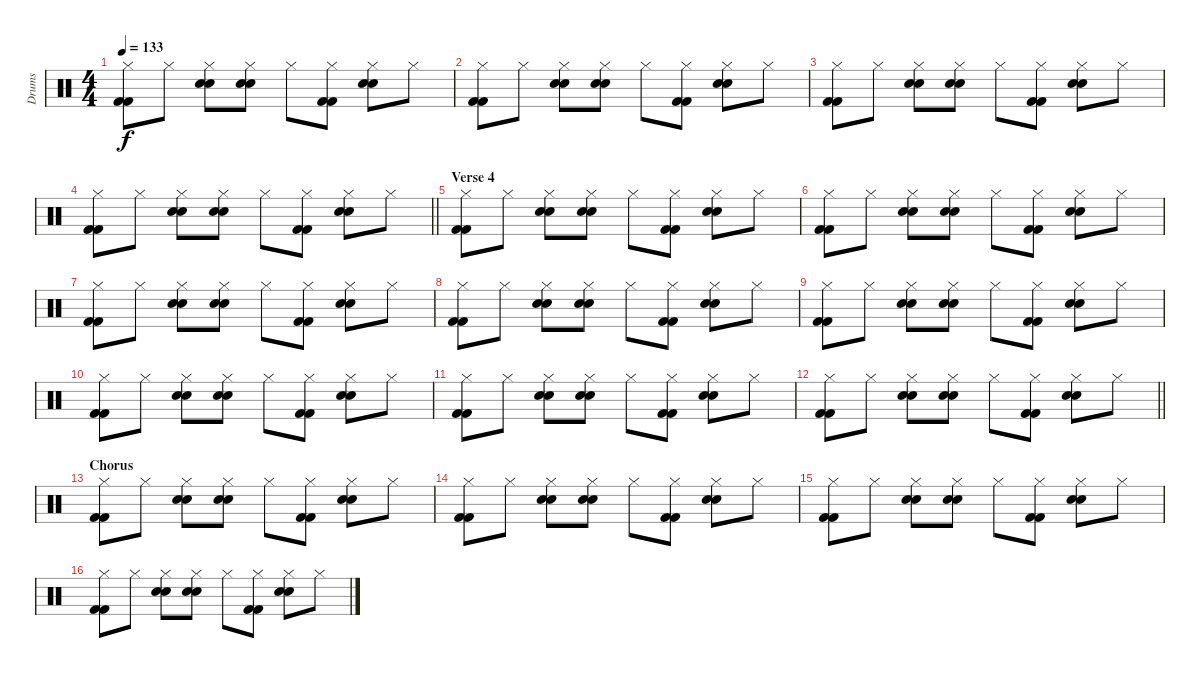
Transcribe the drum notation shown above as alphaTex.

\track ("Drums" "Drums") {instrument percussion}
\staff {score}
\articulation defaults
\ts (4 4)
\tempo 133
\clef neutral
\ks c
("Kick (hit) 2" "Kick (hit) 2" "Hi-Hat (closed)").8{dy f} "Hi-Hat (closed)".8 ("Snare (hit) 2" "Hi-Hat (closed)" "Electric Snare (hit)").8 ("Snare (hit) 2" "Hi-Hat (closed)" "Electric Snare (hit)").8 "Hi-Hat (closed)".8 ("Kick (hit) 2" "Kick (hit) 2" "Hi-Hat (closed)").8 ("Snare (hit) 2" "Hi-Hat (closed)" "Electric Snare (hit)").8 "Hi-Hat (closed)".8 |
("Kick (hit) 2" "Kick (hit) 2" "Hi-Hat (closed)").8 "Hi-Hat (closed)".8 ("Snare (hit) 2" "Hi-Hat (closed)" "Electric Snare (hit)").8 ("Snare (hit) 2" "Hi-Hat (closed)" "Electric Snare (hit)").8 "Hi-Hat (closed)".8 ("Kick (hit) 2" "Kick (hit) 2" "Hi-Hat (closed)").8 ("Snare (hit) 2" "Hi-Hat (closed)" "Electric Snare (hit)").8 "Hi-Hat (closed)".8 |
("Kick (hit) 2" "Kick (hit) 2" "Hi-Hat (closed)").8 "Hi-Hat (closed)".8 ("Snare (hit) 2" "Hi-Hat (closed)" "Electric Snare (hit)").8 ("Snare (hit) 2" "Hi-Hat (closed)" "Electric Snare (hit)").8 "Hi-Hat (closed)".8 ("Kick (hit) 2" "Kick (hit) 2" "Hi-Hat (closed)").8 ("Snare (hit) 2" "Hi-Hat (closed)" "Electric Snare (hit)").8 "Hi-Hat (closed)".8 |
\barLineRight lightlight
("Kick (hit) 2" "Kick (hit) 2" "Hi-Hat (closed)").8 "Hi-Hat (closed)".8 ("Snare (hit) 2" "Hi-Hat (closed)" "Electric Snare (hit)").8 ("Snare (hit) 2" "Hi-Hat (closed)" "Electric Snare (hit)").8 "Hi-Hat (closed)".8 ("Kick (hit) 2" "Kick (hit) 2" "Hi-Hat (closed)").8 ("Snare (hit) 2" "Hi-Hat (closed)" "Electric Snare (hit)").8 "Hi-Hat (closed)".8 |
\section ("" "Verse 4")
("Kick (hit) 2" "Kick (hit) 2" "Hi-Hat (closed)").8 "Hi-Hat (closed)".8 ("Snare (hit) 2" "Hi-Hat (closed)" "Electric Snare (hit)").8 ("Snare (hit) 2" "Hi-Hat (closed)" "Electric Snare (hit)").8 "Hi-Hat (closed)".8 ("Kick (hit) 2" "Kick (hit) 2" "Hi-Hat (closed)").8 ("Snare (hit) 2" "Hi-Hat (closed)" "Electric Snare (hit)").8 "Hi-Hat (closed)".8 |
("Kick (hit) 2" "Kick (hit) 2" "Hi-Hat (closed)").8 "Hi-Hat (closed)".8 ("Snare (hit) 2" "Hi-Hat (closed)" "Electric Snare (hit)").8 ("Snare (hit) 2" "Hi-Hat (closed)" "Electric Snare (hit)").8 "Hi-Hat (closed)".8 ("Kick (hit) 2" "Kick (hit) 2" "Hi-Hat (closed)").8 ("Snare (hit) 2" "Hi-Hat (closed)" "Electric Snare (hit)").8 "Hi-Hat (closed)".8 |
("Kick (hit) 2" "Kick (hit) 2" "Hi-Hat (closed)").8 "Hi-Hat (closed)".8 ("Snare (hit) 2" "Hi-Hat (closed)" "Electric Snare (hit)").8 ("Snare (hit) 2" "Hi-Hat (closed)" "Electric Snare (hit)").8 "Hi-Hat (closed)".8 ("Kick (hit) 2" "Kick (hit) 2" "Hi-Hat (closed)").8 ("Snare (hit) 2" "Hi-Hat (closed)" "Electric Snare (hit)").8 "Hi-Hat (closed)".8 |
("Kick (hit) 2" "Kick (hit) 2" "Hi-Hat (closed)").8 "Hi-Hat (closed)".8 ("Snare (hit) 2" "Hi-Hat (closed)" "Electric Snare (hit)").8 ("Snare (hit) 2" "Hi-Hat (closed)" "Electric Snare (hit)").8 "Hi-Hat (closed)".8 ("Kick (hit) 2" "Kick (hit) 2" "Hi-Hat (closed)").8 ("Snare (hit) 2" "Hi-Hat (closed)" "Electric Snare (hit)").8 "Hi-Hat (closed)".8 |
("Kick (hit) 2" "Kick (hit) 2" "Hi-Hat (closed)").8 "Hi-Hat (closed)".8 ("Snare (hit) 2" "Hi-Hat (closed)" "Electric Snare (hit)").8 ("Snare (hit) 2" "Hi-Hat (closed)" "Electric Snare (hit)").8 "Hi-Hat (closed)".8 ("Kick (hit) 2" "Kick (hit) 2" "Hi-Hat (closed)").8 ("Snare (hit) 2" "Hi-Hat (closed)" "Electric Snare (hit)").8 "Hi-Hat (closed)".8 |
("Kick (hit) 2" "Kick (hit) 2" "Hi-Hat (closed)").8 "Hi-Hat (closed)".8 ("Snare (hit) 2" "Hi-Hat (closed)" "Electric Snare (hit)").8 ("Snare (hit) 2" "Hi-Hat (closed)" "Electric Snare (hit)").8 "Hi-Hat (closed)".8 ("Kick (hit) 2" "Kick (hit) 2" "Hi-Hat (closed)").8 ("Snare (hit) 2" "Hi-Hat (closed)" "Electric Snare (hit)").8 "Hi-Hat (closed)".8 |
("Kick (hit) 2" "Kick (hit) 2" "Hi-Hat (closed)").8 "Hi-Hat (closed)".8 ("Snare (hit) 2" "Hi-Hat (closed)" "Electric Snare (hit)").8 ("Snare (hit) 2" "Hi-Hat (closed)" "Electric Snare (hit)").8 "Hi-Hat (closed)".8 ("Kick (hit) 2" "Kick (hit) 2" "Hi-Hat (closed)").8 ("Snare (hit) 2" "Hi-Hat (closed)" "Electric Snare (hit)").8 "Hi-Hat (closed)".8 |
\barLineRight lightlight
("Kick (hit) 2" "Kick (hit) 2" "Hi-Hat (closed)").8 "Hi-Hat (closed)".8 ("Snare (hit) 2" "Hi-Hat (closed)" "Electric Snare (hit)").8 ("Snare (hit) 2" "Hi-Hat (closed)" "Electric Snare (hit)").8 "Hi-Hat (closed)".8 ("Kick (hit) 2" "Kick (hit) 2" "Hi-Hat (closed)").8 ("Snare (hit) 2" "Hi-Hat (closed)" "Electric Snare (hit)").8 "Hi-Hat (closed)".8 |
\section ("" "Chorus")
("Kick (hit) 2" "Kick (hit) 2" "Hi-Hat (closed)").8 "Hi-Hat (closed)".8 ("Snare (hit) 2" "Hi-Hat (closed)" "Electric Snare (hit)").8 ("Snare (hit) 2" "Hi-Hat (closed)" "Electric Snare (hit)").8 "Hi-Hat (closed)".8 ("Kick (hit) 2" "Kick (hit) 2" "Hi-Hat (closed)").8 ("Snare (hit) 2" "Hi-Hat (closed)" "Electric Snare (hit)").8 "Hi-Hat (closed)".8 |
("Kick (hit) 2" "Kick (hit) 2" "Hi-Hat (closed)").8 "Hi-Hat (closed)".8 ("Snare (hit) 2" "Hi-Hat (closed)" "Electric Snare (hit)").8 ("Snare (hit) 2" "Hi-Hat (closed)" "Electric Snare (hit)").8 "Hi-Hat (closed)".8 ("Kick (hit) 2" "Kick (hit) 2" "Hi-Hat (closed)").8 ("Snare (hit) 2" "Hi-Hat (closed)" "Electric Snare (hit)").8 "Hi-Hat (closed)".8 |
("Kick (hit) 2" "Kick (hit) 2" "Hi-Hat (closed)").8 "Hi-Hat (closed)".8 ("Snare (hit) 2" "Hi-Hat (closed)" "Electric Snare (hit)").8 ("Snare (hit) 2" "Hi-Hat (closed)" "Electric Snare (hit)").8 "Hi-Hat (closed)".8 ("Kick (hit) 2" "Kick (hit) 2" "Hi-Hat (closed)").8 ("Snare (hit) 2" "Hi-Hat (closed)" "Electric Snare (hit)").8 "Hi-Hat (closed)".8 |
("Kick (hit) 2" "Kick (hit) 2" "Hi-Hat (closed)").8 "Hi-Hat (closed)".8 ("Snare (hit) 2" "Hi-Hat (closed)" "Electric Snare (hit)").8 ("Snare (hit) 2" "Hi-Hat (closed)" "Electric Snare (hit)").8 "Hi-Hat (closed)".8 ("Kick (hit) 2" "Kick (hit) 2" "Hi-Hat (closed)").8 ("Snare (hit) 2" "Hi-Hat (closed)" "Electric Snare (hit)").8 "Hi-Hat (closed)".8
